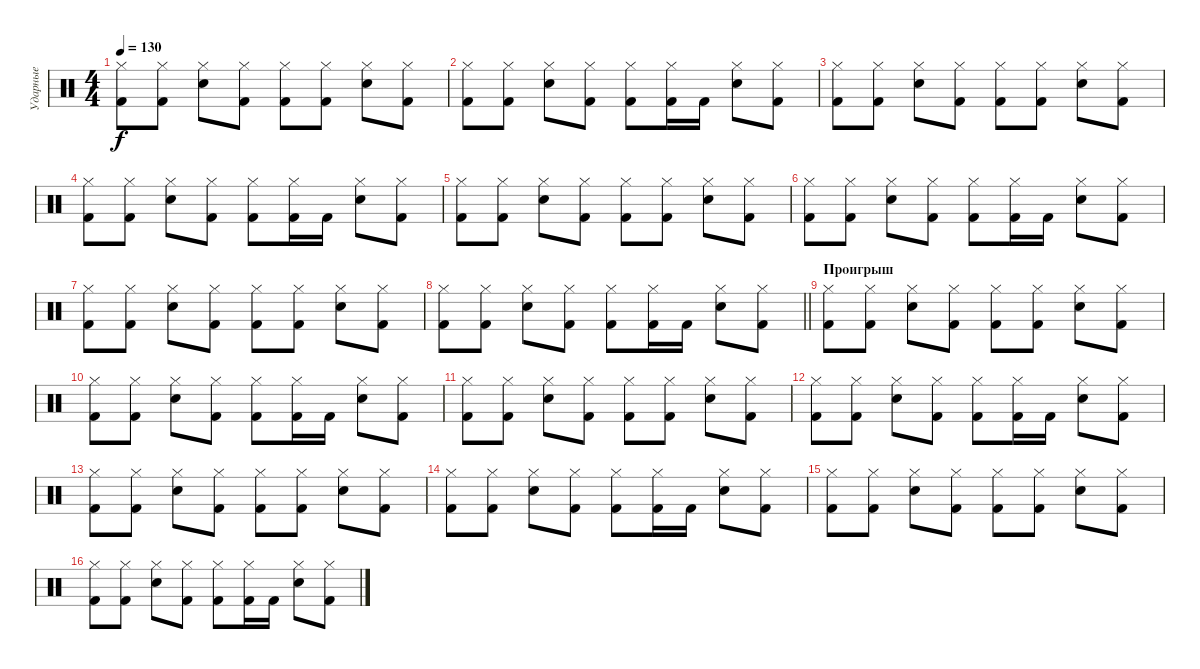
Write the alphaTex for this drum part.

\track ("Ударные" "Ударные") {instrument percussion}
\staff {score}
\articulation defaults
\ts (4 4)
\tempo 130
\clef neutral
\ks c
("Hi-Hat (closed)" "Kick (hit) 2").8{dy f} ("Hi-Hat (closed)" "Kick (hit) 2").8 ("Hi-Hat (closed)" "Snare (hit) 2").8 ("Hi-Hat (closed)" "Kick (hit) 2").8 ("Hi-Hat (closed)" "Kick (hit) 2").8 ("Hi-Hat (closed)" "Kick (hit) 2").8 ("Hi-Hat (closed)" "Snare (hit) 2").8 ("Hi-Hat (closed)" "Kick (hit) 2").8 |
("Hi-Hat (closed)" "Kick (hit) 2").8 ("Hi-Hat (closed)" "Kick (hit) 2").8 ("Hi-Hat (closed)" "Snare (hit) 2").8 ("Hi-Hat (closed)" "Kick (hit) 2").8 ("Hi-Hat (closed)" "Kick (hit) 2").8 ("Hi-Hat (closed)" "Kick (hit) 2").16 "Kick (hit) 2".16 ("Hi-Hat (closed)" "Snare (hit) 2").8 ("Hi-Hat (closed)" "Kick (hit) 2").8 |
("Hi-Hat (closed)" "Kick (hit) 2").8 ("Hi-Hat (closed)" "Kick (hit) 2").8 ("Hi-Hat (closed)" "Snare (hit) 2").8 ("Hi-Hat (closed)" "Kick (hit) 2").8 ("Hi-Hat (closed)" "Kick (hit) 2").8 ("Hi-Hat (closed)" "Kick (hit) 2").8 ("Hi-Hat (closed)" "Snare (hit) 2").8 ("Hi-Hat (closed)" "Kick (hit) 2").8 |
("Hi-Hat (closed)" "Kick (hit) 2").8 ("Hi-Hat (closed)" "Kick (hit) 2").8 ("Hi-Hat (closed)" "Snare (hit) 2").8 ("Hi-Hat (closed)" "Kick (hit) 2").8 ("Hi-Hat (closed)" "Kick (hit) 2").8 ("Hi-Hat (closed)" "Kick (hit) 2").16 "Kick (hit) 2".16 ("Hi-Hat (closed)" "Snare (hit) 2").8 ("Hi-Hat (closed)" "Kick (hit) 2").8 |
("Hi-Hat (closed)" "Kick (hit) 2").8 ("Hi-Hat (closed)" "Kick (hit) 2").8 ("Hi-Hat (closed)" "Snare (hit) 2").8 ("Hi-Hat (closed)" "Kick (hit) 2").8 ("Hi-Hat (closed)" "Kick (hit) 2").8 ("Hi-Hat (closed)" "Kick (hit) 2").8 ("Hi-Hat (closed)" "Snare (hit) 2").8 ("Hi-Hat (closed)" "Kick (hit) 2").8 |
("Hi-Hat (closed)" "Kick (hit) 2").8 ("Hi-Hat (closed)" "Kick (hit) 2").8 ("Hi-Hat (closed)" "Snare (hit) 2").8 ("Hi-Hat (closed)" "Kick (hit) 2").8 ("Hi-Hat (closed)" "Kick (hit) 2").8 ("Hi-Hat (closed)" "Kick (hit) 2").16 "Kick (hit) 2".16 ("Hi-Hat (closed)" "Snare (hit) 2").8 ("Hi-Hat (closed)" "Kick (hit) 2").8 |
("Hi-Hat (closed)" "Kick (hit) 2").8 ("Hi-Hat (closed)" "Kick (hit) 2").8 ("Hi-Hat (closed)" "Snare (hit) 2").8 ("Hi-Hat (closed)" "Kick (hit) 2").8 ("Hi-Hat (closed)" "Kick (hit) 2").8 ("Hi-Hat (closed)" "Kick (hit) 2").8 ("Hi-Hat (closed)" "Snare (hit) 2").8 ("Hi-Hat (closed)" "Kick (hit) 2").8 |
\barLineRight lightlight
("Hi-Hat (closed)" "Kick (hit) 2").8 ("Hi-Hat (closed)" "Kick (hit) 2").8 ("Hi-Hat (closed)" "Snare (hit) 2").8 ("Hi-Hat (closed)" "Kick (hit) 2").8 ("Hi-Hat (closed)" "Kick (hit) 2").8 ("Hi-Hat (closed)" "Kick (hit) 2").16 "Kick (hit) 2".16 ("Hi-Hat (closed)" "Snare (hit) 2").8 ("Hi-Hat (closed)" "Kick (hit) 2").8 |
\section ("" "Проигрыш")
("Hi-Hat (closed)" "Kick (hit) 2").8 ("Hi-Hat (closed)" "Kick (hit) 2").8 ("Hi-Hat (closed)" "Snare (hit) 2").8 ("Hi-Hat (closed)" "Kick (hit) 2").8 ("Hi-Hat (closed)" "Kick (hit) 2").8 ("Hi-Hat (closed)" "Kick (hit) 2").8 ("Hi-Hat (closed)" "Snare (hit) 2").8 ("Hi-Hat (closed)" "Kick (hit) 2").8 |
("Hi-Hat (closed)" "Kick (hit) 2").8 ("Hi-Hat (closed)" "Kick (hit) 2").8 ("Hi-Hat (closed)" "Snare (hit) 2").8 ("Hi-Hat (closed)" "Kick (hit) 2").8 ("Hi-Hat (closed)" "Kick (hit) 2").8 ("Hi-Hat (closed)" "Kick (hit) 2").16 "Kick (hit) 2".16 ("Hi-Hat (closed)" "Snare (hit) 2").8 ("Hi-Hat (closed)" "Kick (hit) 2").8 |
("Hi-Hat (closed)" "Kick (hit) 2").8 ("Hi-Hat (closed)" "Kick (hit) 2").8 ("Hi-Hat (closed)" "Snare (hit) 2").8 ("Hi-Hat (closed)" "Kick (hit) 2").8 ("Hi-Hat (closed)" "Kick (hit) 2").8 ("Hi-Hat (closed)" "Kick (hit) 2").8 ("Hi-Hat (closed)" "Snare (hit) 2").8 ("Hi-Hat (closed)" "Kick (hit) 2").8 |
("Hi-Hat (closed)" "Kick (hit) 2").8 ("Hi-Hat (closed)" "Kick (hit) 2").8 ("Hi-Hat (closed)" "Snare (hit) 2").8 ("Hi-Hat (closed)" "Kick (hit) 2").8 ("Hi-Hat (closed)" "Kick (hit) 2").8 ("Hi-Hat (closed)" "Kick (hit) 2").16 "Kick (hit) 2".16 ("Hi-Hat (closed)" "Snare (hit) 2").8 ("Hi-Hat (closed)" "Kick (hit) 2").8 |
("Hi-Hat (closed)" "Kick (hit) 2").8 ("Hi-Hat (closed)" "Kick (hit) 2").8 ("Hi-Hat (closed)" "Snare (hit) 2").8 ("Hi-Hat (closed)" "Kick (hit) 2").8 ("Hi-Hat (closed)" "Kick (hit) 2").8 ("Hi-Hat (closed)" "Kick (hit) 2").8 ("Hi-Hat (closed)" "Snare (hit) 2").8 ("Hi-Hat (closed)" "Kick (hit) 2").8 |
("Hi-Hat (closed)" "Kick (hit) 2").8 ("Hi-Hat (closed)" "Kick (hit) 2").8 ("Hi-Hat (closed)" "Snare (hit) 2").8 ("Hi-Hat (closed)" "Kick (hit) 2").8 ("Hi-Hat (closed)" "Kick (hit) 2").8 ("Hi-Hat (closed)" "Kick (hit) 2").16 "Kick (hit) 2".16 ("Hi-Hat (closed)" "Snare (hit) 2").8 ("Hi-Hat (closed)" "Kick (hit) 2").8 |
("Hi-Hat (closed)" "Kick (hit) 2").8 ("Hi-Hat (closed)" "Kick (hit) 2").8 ("Hi-Hat (closed)" "Snare (hit) 2").8 ("Hi-Hat (closed)" "Kick (hit) 2").8 ("Hi-Hat (closed)" "Kick (hit) 2").8 ("Hi-Hat (closed)" "Kick (hit) 2").8 ("Hi-Hat (closed)" "Snare (hit) 2").8 ("Hi-Hat (closed)" "Kick (hit) 2").8 |
("Hi-Hat (closed)" "Kick (hit) 2").8 ("Hi-Hat (closed)" "Kick (hit) 2").8 ("Hi-Hat (closed)" "Snare (hit) 2").8 ("Hi-Hat (closed)" "Kick (hit) 2").8 ("Hi-Hat (closed)" "Kick (hit) 2").8 ("Hi-Hat (closed)" "Kick (hit) 2").16 "Kick (hit) 2".16 ("Hi-Hat (closed)" "Snare (hit) 2").8 ("Hi-Hat (closed)" "Kick (hit) 2").8
